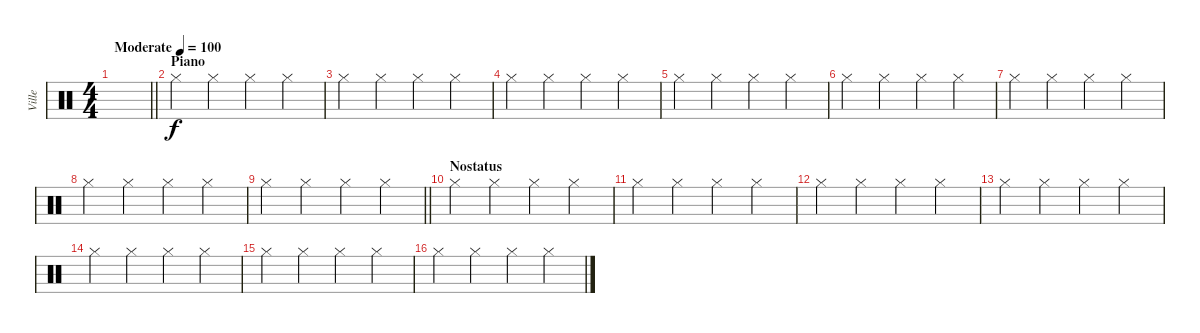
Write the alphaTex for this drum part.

\track ("Ville" "Ville") {instrument percussion}
\staff {score}
\articulation defaults
\ts (4 4)
\tempo (100 "Moderate")
\clef neutral
\barLineRight lightlight
\ks c
|
\section ("" "Piano")
"Hi-Hat (closed)".4 "Hi-Hat (closed)".4 "Hi-Hat (closed)".4 "Hi-Hat (closed)".4 |
"Hi-Hat (closed)".4 "Hi-Hat (closed)".4 "Hi-Hat (closed)".4 "Hi-Hat (closed)".4 |
"Hi-Hat (closed)".4 "Hi-Hat (closed)".4 "Hi-Hat (closed)".4 "Hi-Hat (closed)".4 |
"Hi-Hat (closed)".4 "Hi-Hat (closed)".4 "Hi-Hat (closed)".4 "Hi-Hat (closed)".4 |
"Hi-Hat (closed)".4 "Hi-Hat (closed)".4 "Hi-Hat (closed)".4 "Hi-Hat (closed)".4 |
"Hi-Hat (closed)".4 "Hi-Hat (closed)".4 "Hi-Hat (closed)".4 "Hi-Hat (closed)".4 |
"Hi-Hat (closed)".4 "Hi-Hat (closed)".4 "Hi-Hat (closed)".4 "Hi-Hat (closed)".4 |
\barLineRight lightlight "Hi-Hat (closed)".4 "Hi-Hat (closed)".4 "Hi-Hat (closed)".4 "Hi-Hat (closed)".4
|
\section ("" "Nostatus")
"Hi-Hat (closed)".4 "Hi-Hat (closed)".4 "Hi-Hat (closed)".4 "Hi-Hat (closed)".4 |
"Hi-Hat (closed)".4 "Hi-Hat (closed)".4 "Hi-Hat (closed)".4 "Hi-Hat (closed)".4 |
"Hi-Hat (closed)".4 "Hi-Hat (closed)".4 "Hi-Hat (closed)".4 "Hi-Hat (closed)".4 |
"Hi-Hat (closed)".4 "Hi-Hat (closed)".4 "Hi-Hat (closed)".4 "Hi-Hat (closed)".4 |
"Hi-Hat (closed)".4 "Hi-Hat (closed)".4 "Hi-Hat (closed)".4 "Hi-Hat (closed)".4 |
"Hi-Hat (closed)".4 "Hi-Hat (closed)".4 "Hi-Hat (closed)".4 "Hi-Hat (closed)".4 |
"Hi-Hat (closed)".4 "Hi-Hat (closed)".4 "Hi-Hat (closed)".4 "Hi-Hat (closed)".4
